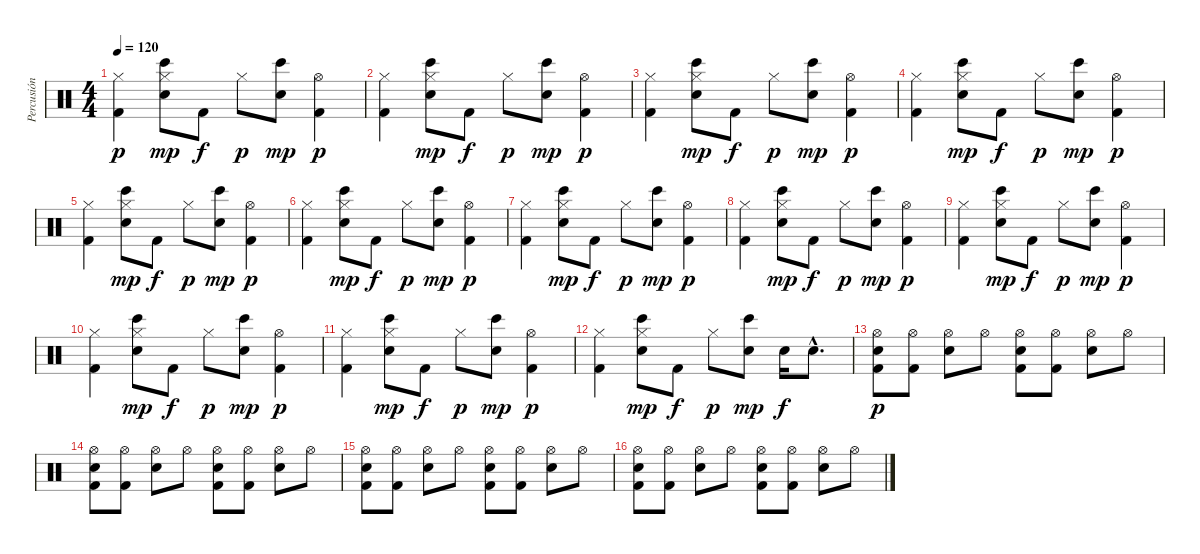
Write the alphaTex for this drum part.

\track ("Percusión" "Percusión") {instrument percussion}
\staff {score}
\articulation defaults
\ts (4 4)
\tempo 120
\clef neutral
\ks c
("Kick (hit) 2" "Hi-Hat (closed)").4{dy p} ("Electric Snare (hit)" "Hi-Hat (closed)" "Bongo High (hit)").8{dy mp} "Kick (hit) 2".8{dy f} "Hi-Hat (closed)".8{dy p} ("Electric Snare (hit)" "Bongo High (hit)").8{dy mp} ("Kick (hit) 2" "Hi-Hat (open)").4{dy p} |
("Kick (hit) 2" "Hi-Hat (closed)").4 ("Electric Snare (hit)" "Hi-Hat (closed)" "Bongo High (hit)").8{dy mp} "Kick (hit) 2".8{dy f} "Hi-Hat (closed)".8{dy p} ("Electric Snare (hit)" "Bongo High (hit)").8{dy mp} ("Kick (hit) 2" "Hi-Hat (open)").4{dy p} |
("Kick (hit) 2" "Hi-Hat (closed)").4 ("Electric Snare (hit)" "Hi-Hat (closed)" "Bongo High (hit)").8{dy mp} "Kick (hit) 2".8{dy f} "Hi-Hat (closed)".8{dy p} ("Electric Snare (hit)" "Bongo High (hit)").8{dy mp} ("Kick (hit) 2" "Hi-Hat (open)").4{dy p} |
("Kick (hit) 2" "Hi-Hat (closed)").4 ("Electric Snare (hit)" "Hi-Hat (closed)" "Bongo High (hit)").8{dy mp} "Kick (hit) 2".8{dy f} "Hi-Hat (closed)".8{dy p} ("Electric Snare (hit)" "Bongo High (hit)").8{dy mp} ("Kick (hit) 2" "Hi-Hat (open)").4{dy p} |
("Kick (hit) 2" "Hi-Hat (closed)").4 ("Electric Snare (hit)" "Hi-Hat (closed)" "Bongo High (hit)").8{dy mp} "Kick (hit) 2".8{dy f} "Hi-Hat (closed)".8{dy p} ("Electric Snare (hit)" "Bongo High (hit)").8{dy mp} ("Kick (hit) 2" "Hi-Hat (open)").4{dy p} |
("Kick (hit) 2" "Hi-Hat (closed)").4 ("Electric Snare (hit)" "Hi-Hat (closed)" "Bongo High (hit)").8{dy mp} "Kick (hit) 2".8{dy f} "Hi-Hat (closed)".8{dy p} ("Electric Snare (hit)" "Bongo High (hit)").8{dy mp} ("Kick (hit) 2" "Hi-Hat (open)").4{dy p} |
("Kick (hit) 2" "Hi-Hat (closed)").4 ("Electric Snare (hit)" "Hi-Hat (closed)" "Bongo High (hit)").8{dy mp} "Kick (hit) 2".8{dy f} "Hi-Hat (closed)".8{dy p} ("Electric Snare (hit)" "Bongo High (hit)").8{dy mp} ("Kick (hit) 2" "Hi-Hat (open)").4{dy p} |
("Kick (hit) 2" "Hi-Hat (closed)").4 ("Electric Snare (hit)" "Hi-Hat (closed)" "Bongo High (hit)").8{dy mp} "Kick (hit) 2".8{dy f} "Hi-Hat (closed)".8{dy p} ("Electric Snare (hit)" "Bongo High (hit)").8{dy mp} ("Kick (hit) 2" "Hi-Hat (open)").4{dy p} |
("Kick (hit) 2" "Hi-Hat (closed)").4 ("Electric Snare (hit)" "Hi-Hat (closed)" "Bongo High (hit)").8{dy mp} "Kick (hit) 2".8{dy f} "Hi-Hat (closed)".8{dy p} ("Electric Snare (hit)" "Bongo High (hit)").8{dy mp} ("Kick (hit) 2" "Hi-Hat (open)").4{dy p} |
("Kick (hit) 2" "Hi-Hat (closed)").4 ("Electric Snare (hit)" "Hi-Hat (closed)" "Bongo High (hit)").8{dy mp} "Kick (hit) 2".8{dy f} "Hi-Hat (closed)".8{dy p} ("Electric Snare (hit)" "Bongo High (hit)").8{dy mp} ("Kick (hit) 2" "Hi-Hat (open)").4{dy p} |
("Kick (hit) 2" "Hi-Hat (closed)").4 ("Electric Snare (hit)" "Hi-Hat (closed)" "Bongo High (hit)").8{dy mp} "Kick (hit) 2".8{dy f} "Hi-Hat (closed)".8{dy p} ("Electric Snare (hit)" "Bongo High (hit)").8{dy mp} ("Kick (hit) 2" "Hi-Hat (open)").4{dy p} |
("Kick (hit) 2" "Hi-Hat (closed)").4 ("Electric Snare (hit)" "Hi-Hat (closed)" "Bongo High (hit)").8{dy mp} "Kick (hit) 2".8{dy f} "Hi-Hat (closed)".8{dy p} ("Electric Snare (hit)" "Bongo High (hit)").8{dy mp} "Snare (hit) 2".16{dy f} "Snare (hit) 2"{hac}.8{d} |
("Snare (hit) 2" "Hi-Hat (open)" "Kick (hit) 2").8{dy p} ("Hi-Hat (open)" "Kick (hit) 2").8 ("Snare (hit) 2" "Hi-Hat (open)").8 "Hi-Hat (open)".8 ("Snare (hit) 2" "Hi-Hat (open)" "Kick (hit) 2").8 ("Hi-Hat (open)" "Kick (hit) 2").8 ("Snare (hit) 2" "Hi-Hat (open)").8 "Hi-Hat (open)".8 |
("Snare (hit) 2" "Hi-Hat (open)" "Kick (hit) 2").8 ("Hi-Hat (open)" "Kick (hit) 2").8 ("Snare (hit) 2" "Hi-Hat (open)").8 "Hi-Hat (open)".8 ("Snare (hit) 2" "Hi-Hat (open)" "Kick (hit) 2").8 ("Hi-Hat (open)" "Kick (hit) 2").8 ("Snare (hit) 2" "Hi-Hat (open)").8 "Hi-Hat (open)".8 |
("Snare (hit) 2" "Hi-Hat (open)" "Kick (hit) 2").8 ("Hi-Hat (open)" "Kick (hit) 2").8 ("Snare (hit) 2" "Hi-Hat (open)").8 "Hi-Hat (open)".8 ("Snare (hit) 2" "Hi-Hat (open)" "Kick (hit) 2").8 ("Hi-Hat (open)" "Kick (hit) 2").8 ("Snare (hit) 2" "Hi-Hat (open)").8 "Hi-Hat (open)".8 |
("Snare (hit) 2" "Hi-Hat (open)" "Kick (hit) 2").8 ("Hi-Hat (open)" "Kick (hit) 2").8 ("Snare (hit) 2" "Hi-Hat (open)").8 "Hi-Hat (open)".8 ("Snare (hit) 2" "Hi-Hat (open)" "Kick (hit) 2").8 ("Hi-Hat (open)" "Kick (hit) 2").8 ("Snare (hit) 2" "Hi-Hat (open)").8 "Hi-Hat (open)".8
